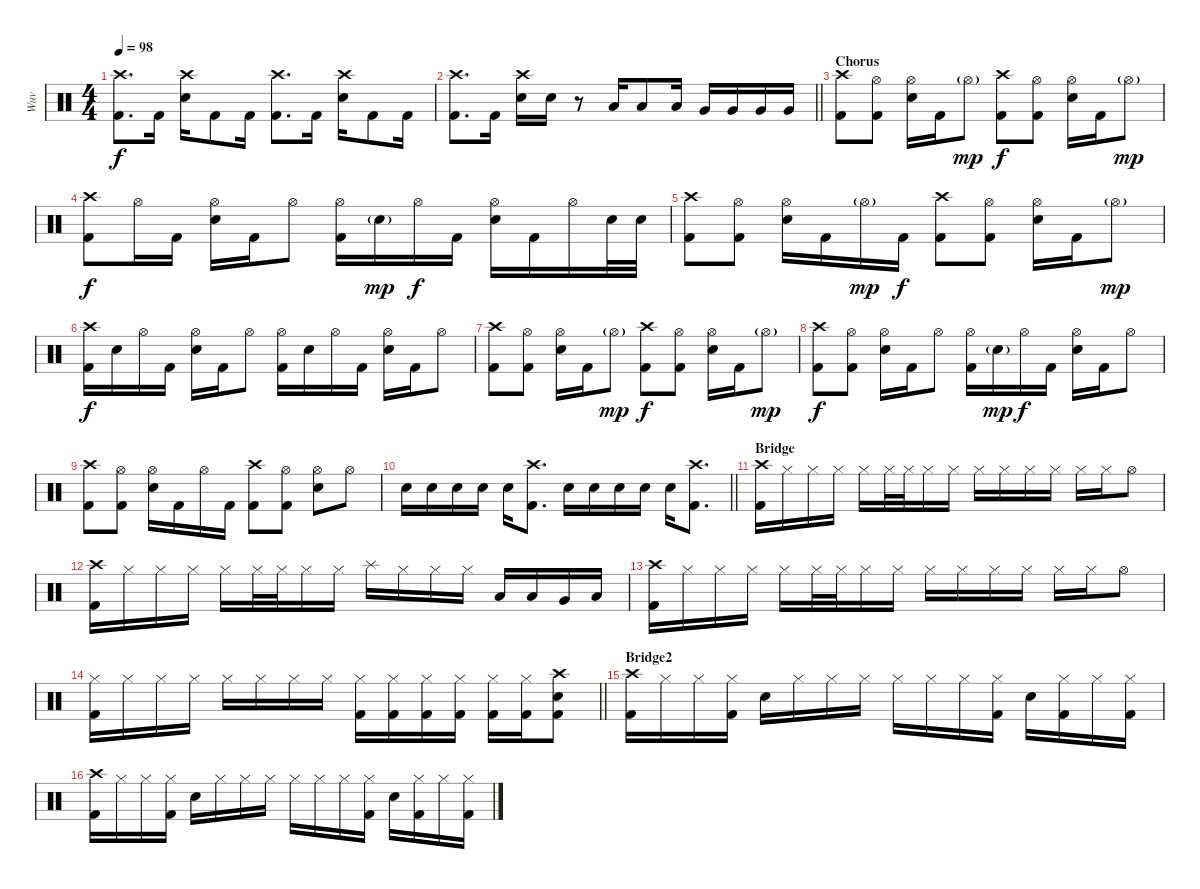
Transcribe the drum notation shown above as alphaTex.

\track ("Wuv" "Wuv") {instrument percussion}
\staff {score}
\articulation defaults
\ts (4 4)
\tempo 98
\clef neutral
\ks c
("Crash high (hit)" "Kick (hit) 2").8{d dy f} "Kick (hit) 2".16 ("Crash high (hit)" "Electric Snare (hit)").16 "Kick (hit) 2".8 "Kick (hit) 2".16 ("Crash high (hit)" "Kick (hit) 2").8{d} "Kick (hit) 2".16 ("Crash high (hit)" "Electric Snare (hit)").16 "Kick (hit) 2".8 "Kick (hit) 2".16 |
\barLineRight lightlight
("Crash high (hit)" "Kick (hit) 2").8{d} "Kick (hit) 2".16 ("Crash high (hit)" "Electric Snare (hit)").16 "Electric Snare (hit)".16 r.8 "Low Tom (hit)".16 "Low Tom (hit)".8 "Low Tom (hit)".16 "Very Low Tom (hit)".16 "Very Low Tom (hit)".16 "Very Low Tom (hit)".16 "Very Low Tom (hit)".16 |
\section ("" "Chorus")
("Crash high (hit)" "Kick (hit) 2").8 ("Hi-Hat (open)" "Kick (hit) 2").8 ("Hi-Hat (open)" "Electric Snare (hit)").16 "Kick (hit) 2".16 "Hi-Hat (open)"{g}.8{dy mp} ("Crash high (hit)" "Kick (hit) 2").8{dy f} ("Hi-Hat (open)" "Kick (hit) 2").8 ("Hi-Hat (open)" "Electric Snare (hit)").16 "Kick (hit) 2".16 "Hi-Hat (open)"{g}.8{dy mp} |
("Crash high (hit)" "Kick (hit) 2").8{dy f} "Hi-Hat (open)".16 "Kick (hit) 2".16 ("Hi-Hat (open)" "Electric Snare (hit)").16 "Kick (hit) 2".16 "Hi-Hat (open)".8 ("Hi-Hat (open)" "Kick (hit) 2").16 "Electric Snare (hit)"{g}.16{dy mp} "Hi-Hat (open)".16{dy f} "Kick (hit) 2".16 ("Hi-Hat (open)" "Electric Snare (hit)").16 "Kick (hit) 2".16 "Hi-Hat (open)".16 "Electric Snare (hit)".32 "Electric Snare (hit)".32 |
("Crash high (hit)" "Kick (hit) 2").8 ("Hi-Hat (open)" "Kick (hit) 2").8 ("Hi-Hat (open)" "Electric Snare (hit)").16 "Kick (hit) 2".16 "Hi-Hat (open)"{g}.16{dy mp} "Kick (hit) 2".16{dy f} ("Crash high (hit)" "Kick (hit) 2").8 ("Hi-Hat (open)" "Kick (hit) 2").8 ("Hi-Hat (open)" "Electric Snare (hit)").16 "Kick (hit) 2".16 "Hi-Hat (open)"{g}.8{dy mp} |
("Crash high (hit)" "Kick (hit) 2").16{dy f} "Electric Snare (hit)".16 "Hi-Hat (open)".16 "Kick (hit) 2".16 ("Hi-Hat (open)" "Electric Snare (hit)").16 "Kick (hit) 2".16 "Hi-Hat (open)".8 ("Hi-Hat (open)" "Kick (hit) 2").16 "Electric Snare (hit)".16 "Hi-Hat (open)".16 "Kick (hit) 2".16 ("Hi-Hat (open)" "Electric Snare (hit)").16 "Kick (hit) 2".16 "Hi-Hat (open)".8 |
("Crash high (hit)" "Kick (hit) 2").8 ("Hi-Hat (open)" "Kick (hit) 2").8 ("Hi-Hat (open)" "Electric Snare (hit)").16 "Kick (hit) 2".16 "Hi-Hat (open)"{g}.8{dy mp} ("Crash high (hit)" "Kick (hit) 2").8{dy f} ("Hi-Hat (open)" "Kick (hit) 2").8 ("Hi-Hat (open)" "Electric Snare (hit)").16 "Kick (hit) 2".16 "Hi-Hat (open)"{g}.8{dy mp} |
("Crash high (hit)" "Kick (hit) 2").8{dy f} ("Hi-Hat (open)" "Kick (hit) 2").8 ("Hi-Hat (open)" "Electric Snare (hit)").16 "Kick (hit) 2".16 "Hi-Hat (open)".8 ("Hi-Hat (open)" "Kick (hit) 2").16 "Electric Snare (hit)"{g}.16{dy mp} "Hi-Hat (open)".16{dy f} "Kick (hit) 2".16 ("Hi-Hat (open)" "Electric Snare (hit)").16 "Kick (hit) 2".16 "Hi-Hat (open)".8 |
("Crash high (hit)" "Kick (hit) 2").8 ("Hi-Hat (open)" "Kick (hit) 2").8 ("Hi-Hat (open)" "Electric Snare (hit)").16 "Kick (hit) 2".16 "Hi-Hat (open)".16 "Kick (hit) 2".16 ("Crash high (hit)" "Kick (hit) 2").8 ("Hi-Hat (open)" "Kick (hit) 2").8 ("Hi-Hat (open)" "Electric Snare (hit)").8 "Hi-Hat (open)".8 |
\barLineRight lightlight "Electric Snare (hit)".16 "Electric Snare (hit)".16 "Electric Snare (hit)".16 "Electric Snare (hit)".16 "Electric Snare (hit)".16
("Crash high (hit)" "Kick (hit) 2").8{d} "Electric Snare (hit)".16 "Electric Snare (hit)".16 "Electric Snare (hit)".16 "Electric Snare (hit)".16 "Electric Snare (hit)".16 ("Crash high (hit)" "Kick (hit) 2").8{d} |
\section ("" "Bridge")
("Crash high (hit)" "Kick (hit) 2").16 "Hi-Hat (closed)".16 "Hi-Hat (closed)".16 "Hi-Hat (closed)".16 "Hi-Hat (closed)".16 "Hi-Hat (closed)".32 "Hi-Hat (closed)".32 "Hi-Hat (closed)".16 "Hi-Hat (closed)".16 "Hi-Hat (closed)".16 "Hi-Hat (closed)".16 "Hi-Hat (closed)".16 "Hi-Hat (closed)".16 "Hi-Hat (closed)".16 "Hi-Hat (closed)".16 "Hi-Hat (open)".8 |
("Crash high (hit)" "Kick (hit) 2").16 "Hi-Hat (closed)".16 "Hi-Hat (closed)".16 "Hi-Hat (closed)".16 "Hi-Hat (closed)".16 "Hi-Hat (closed)".32 "Hi-Hat (closed)".32 "Hi-Hat (closed)".16 "Hi-Hat (closed)".16 "Splash (hit)".16 "Hi-Hat (closed)".16 "Hi-Hat (closed)".16 "Hi-Hat (closed)".16 "Low Tom (hit)".16 "Low Tom (hit)".16 "Very Low Tom (hit)".16 "Low Floor Tom (hit)".16 |
("Crash high (hit)" "Kick (hit) 2").16 "Hi-Hat (closed)".16 "Hi-Hat (closed)".16 "Hi-Hat (closed)".16 "Hi-Hat (closed)".16 "Hi-Hat (closed)".32 "Hi-Hat (closed)".32 "Hi-Hat (closed)".16 "Hi-Hat (closed)".16 "Hi-Hat (closed)".16 "Hi-Hat (closed)".16 "Hi-Hat (closed)".16 "Hi-Hat (closed)".16 "Hi-Hat (closed)".16 "Hi-Hat (closed)".16 "Hi-Hat (open)".8 |
\barLineRight lightlight
("Hi-Hat (closed)" "Kick (hit) 2").16 "Hi-Hat (closed)".16 "Hi-Hat (closed)".16 "Hi-Hat (closed)".16 "Hi-Hat (closed)".16 "Hi-Hat (closed)".16 "Hi-Hat (closed)".16 "Hi-Hat (closed)".16 ("Hi-Hat (closed)" "Kick (hit) 2").16 ("Hi-Hat (closed)" "Kick (hit) 2").16 ("Hi-Hat (closed)" "Kick (hit) 2").16 ("Hi-Hat (closed)" "Kick (hit) 2").16 ("Hi-Hat (closed)" "Kick (hit) 2").16 ("Hi-Hat (closed)" "Kick (hit) 2").16 ("Crash high (hit)" "Electric Snare (hit)" "Kick (hit) 2").8 |
\section ("" "Bridge2")
("Crash high (hit)" "Kick (hit) 2").16 "Hi-Hat (closed)".16 "Hi-Hat (closed)".16 ("Hi-Hat (closed)" "Kick (hit) 2").16 "Electric Snare (hit)".16 "Hi-Hat (closed)".16 "Hi-Hat (closed)".16 "Hi-Hat (closed)".16 "Hi-Hat (closed)".16 "Hi-Hat (closed)".16 "Hi-Hat (closed)".16 ("Hi-Hat (closed)" "Kick (hit) 2").16 "Electric Snare (hit)".16 ("Hi-Hat (closed)" "Kick (hit) 2").16 "Hi-Hat (closed)".16 ("Hi-Hat (closed)" "Kick (hit) 2").16 |
("Crash high (hit)" "Kick (hit) 2").16 "Hi-Hat (closed)".16 "Hi-Hat (closed)".16 ("Hi-Hat (closed)" "Kick (hit) 2").16 "Electric Snare (hit)".16 "Hi-Hat (closed)".16 "Hi-Hat (closed)".16 "Hi-Hat (closed)".16 "Hi-Hat (closed)".16 "Hi-Hat (closed)".16 "Hi-Hat (closed)".16 ("Hi-Hat (closed)" "Kick (hit) 2").16 "Electric Snare (hit)".16 ("Hi-Hat (closed)" "Kick (hit) 2").16 "Hi-Hat (closed)".16 ("Hi-Hat (closed)" "Kick (hit) 2").16
